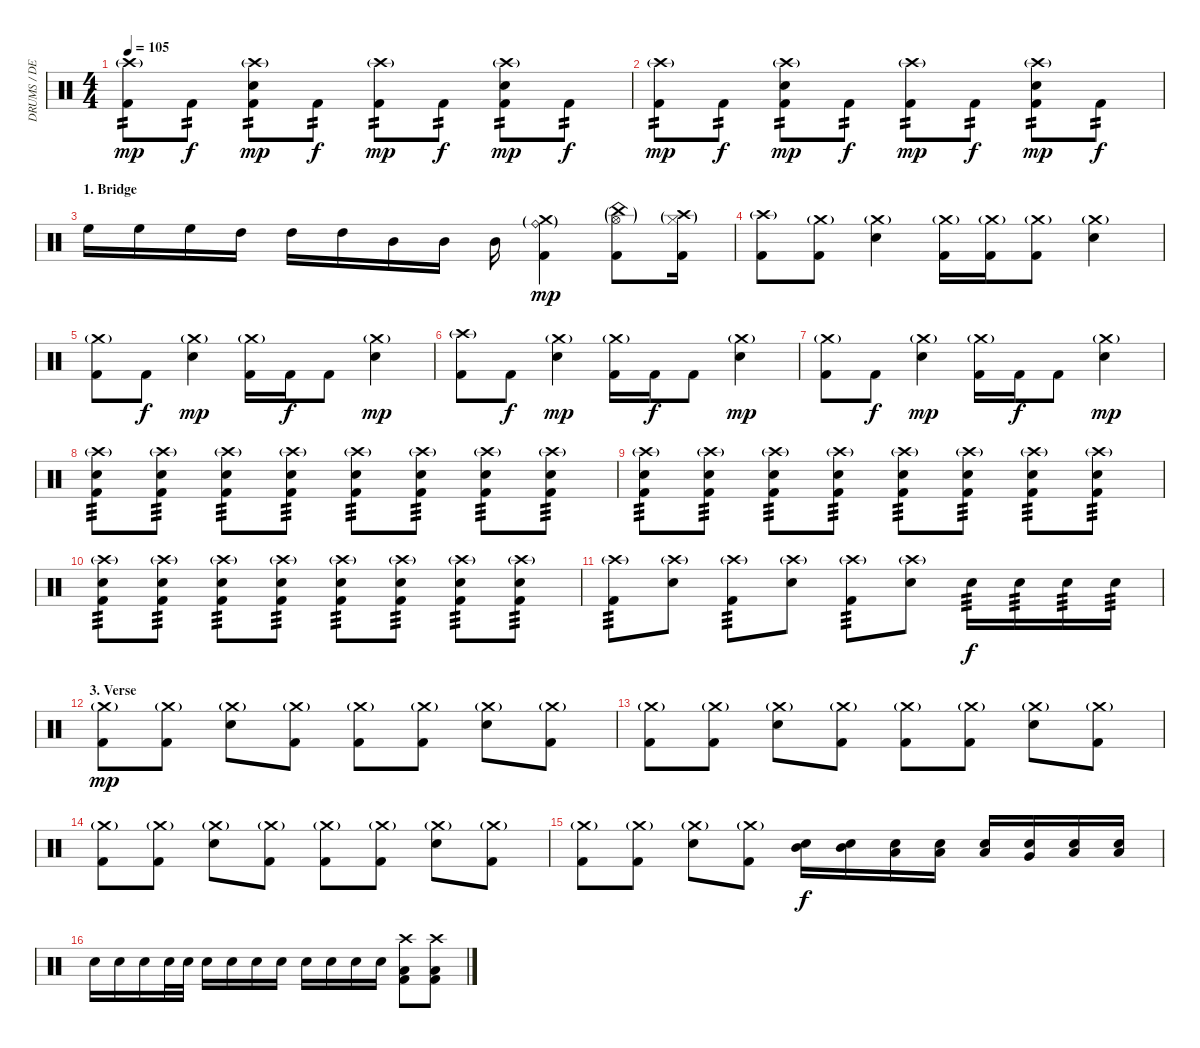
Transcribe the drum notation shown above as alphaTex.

\track ("DRUMS / DENNn!S" "DRUMS / DE") {instrument percussion}
\staff {score}
\articulation defaults
\ts (4 4)
\tempo 105
\clef neutral
\ks c
("Crash high (hit)"{g} "Kick (hit) 2").8{tp 2 dy mp} "Kick (hit) 2".8{tp 2 dy f} ("Crash high (hit)"{g} "Kick (hit) 2" "Electric Snare (hit)").8{tp 2 dy mp} "Kick (hit) 2".8{tp 2 dy f} ("Crash high (hit)"{g} "Kick (hit) 2").8{tp 2 dy mp} "Kick (hit) 2".8{tp 2 dy f} ("Crash high (hit)"{g} "Kick (hit) 2" "Electric Snare (hit)").8{tp 2 dy mp} "Kick (hit) 2".8{tp 2 dy f} |
("Crash high (hit)"{g} "Kick (hit) 2").8{tp 2 dy mp} "Kick (hit) 2".8{tp 2 dy f} ("Crash high (hit)"{g} "Kick (hit) 2" "Electric Snare (hit)").8{tp 2 dy mp} "Kick (hit) 2".8{tp 2 dy f} ("Crash high (hit)"{g} "Kick (hit) 2").8{tp 2 dy mp} "Kick (hit) 2".8{tp 2 dy f} ("Crash high (hit)"{g} "Kick (hit) 2" "Electric Snare (hit)").8{tp 2 dy mp} "Kick (hit) 2".8{tp 2 dy f} |
\section ("" "1. Bridge")
"High Floor Tom (hit)".16 "High Floor Tom (hit)".16 "High Floor Tom (hit)".16 "High Tom (hit)".16 "High Tom (hit)".16 "High Tom (hit)".16 "Mid Tom (hit)".16 "Mid Tom (hit)".16 "Mid Tom (hit)".16 ("Ride (bell)"{g} "Crash medium (hit)"{g} "Kick (hit) 2").4{dy mp} ("China (hit)"{g} "Hi-Hat (open)"{g} "Kick (hit) 2").8 ("Hi-Hat (closed)"{g} "Crash high (hit)"{g} "Kick (hit) 2").16 |
("Crash high (hit)"{g} "Kick (hit) 2").8 ("Crash medium (hit)"{g} "Kick (hit) 2").8 ("Crash medium (hit)"{g} "Electric Snare (hit)").4 ("Crash medium (hit)"{g} "Kick (hit) 2").16 ("Crash medium (hit)"{g} "Kick (hit) 2").16 ("Crash medium (hit)"{g} "Kick (hit) 2").8 ("Crash medium (hit)"{g} "Electric Snare (hit)").4 |
("Crash medium (hit)"{g} "Kick (hit) 2").8 "Kick (hit) 2".8{dy f} ("Crash medium (hit)"{g} "Electric Snare (hit)").4{dy mp} ("Crash medium (hit)"{g} "Kick (hit) 2").16 "Kick (hit) 2".16{dy f} "Kick (hit) 2".8 ("Crash medium (hit)"{g} "Electric Snare (hit)").4{dy mp} |
("Crash high (hit)"{g} "Kick (hit) 2").8 "Kick (hit) 2".8{dy f} ("Crash medium (hit)"{g} "Electric Snare (hit)").4{dy mp} ("Crash medium (hit)"{g} "Kick (hit) 2").16 "Kick (hit) 2".16{dy f} "Kick (hit) 2".8 ("Crash medium (hit)"{g} "Electric Snare (hit)").4{dy mp} |
("Crash medium (hit)"{g} "Kick (hit) 2").8 "Kick (hit) 2".8{dy f} ("Crash medium (hit)"{g} "Electric Snare (hit)").4{dy mp} ("Crash medium (hit)"{g} "Kick (hit) 2").16 "Kick (hit) 2".16{dy f} "Kick (hit) 2".8 ("Crash medium (hit)"{g} "Electric Snare (hit)").4{dy mp} |
("Crash high (hit)"{g} "Electric Snare (hit)" "Kick (hit) 2").8{tp 3} ("Crash high (hit)"{g} "Kick (hit) 2" "Electric Snare (hit)").8{tp 3} ("Crash high (hit)"{g} "Electric Snare (hit)" "Kick (hit) 2").8{tp 3} ("Crash high (hit)"{g} "Kick (hit) 2" "Electric Snare (hit)").8{tp 3} ("Crash high (hit)"{g} "Electric Snare (hit)" "Kick (hit) 2").8{tp 3} ("Crash high (hit)"{g} "Kick (hit) 2" "Electric Snare (hit)").8{tp 3} ("Crash high (hit)"{g} "Electric Snare (hit)" "Kick (hit) 2").8{tp 3} ("Crash high (hit)"{g} "Kick (hit) 2" "Electric Snare (hit)").8{tp 3} |
("Crash high (hit)"{g} "Electric Snare (hit)" "Kick (hit) 2").8{tp 3} ("Crash high (hit)"{g} "Kick (hit) 2" "Electric Snare (hit)").8{tp 3} ("Crash high (hit)"{g} "Electric Snare (hit)" "Kick (hit) 2").8{tp 3} ("Crash high (hit)"{g} "Kick (hit) 2" "Electric Snare (hit)").8{tp 3} ("Crash high (hit)"{g} "Electric Snare (hit)" "Kick (hit) 2").8{tp 3} ("Crash high (hit)"{g} "Kick (hit) 2" "Electric Snare (hit)").8{tp 3} ("Crash high (hit)"{g} "Electric Snare (hit)" "Kick (hit) 2").8{tp 3} ("Crash high (hit)"{g} "Kick (hit) 2" "Electric Snare (hit)").8{tp 3} |
("Crash high (hit)"{g} "Electric Snare (hit)" "Kick (hit) 2").8{tp 3} ("Crash high (hit)"{g} "Kick (hit) 2" "Electric Snare (hit)").8{tp 3} ("Crash high (hit)"{g} "Electric Snare (hit)" "Kick (hit) 2").8{tp 3} ("Crash high (hit)"{g} "Kick (hit) 2" "Electric Snare (hit)").8{tp 3} ("Crash high (hit)"{g} "Electric Snare (hit)" "Kick (hit) 2").8{tp 3} ("Crash high (hit)"{g} "Kick (hit) 2" "Electric Snare (hit)").8{tp 3} ("Crash high (hit)"{g} "Electric Snare (hit)" "Kick (hit) 2").8{tp 3} ("Crash high (hit)"{g} "Kick (hit) 2" "Electric Snare (hit)").8{tp 3} |
("Crash high (hit)"{g} "Kick (hit) 2").8{tp 3} ("Crash high (hit)"{g} "Electric Snare (hit)").8 ("Crash high (hit)"{g} "Kick (hit) 2").8{tp 3} ("Crash high (hit)"{g} "Electric Snare (hit)").8 ("Crash high (hit)"{g} "Kick (hit) 2").8{tp 3} ("Crash high (hit)"{g} "Electric Snare (hit)").8 "Electric Snare (hit)".16{tp 3 dy f} "Electric Snare (hit)".16{tp 3} "Electric Snare (hit)".16{tp 3} "Electric Snare (hit)".16{tp 3} |
\section ("" "3. Verse")
("Crash medium (hit)"{g} "Kick (hit) 2").8{dy mp} ("Crash medium (hit)"{g} "Kick (hit) 2").8 ("Crash medium (hit)"{g} "Electric Snare (hit)").8 ("Crash medium (hit)"{g} "Kick (hit) 2").8 ("Crash medium (hit)"{g} "Kick (hit) 2").8 ("Crash medium (hit)"{g} "Kick (hit) 2").8 ("Crash medium (hit)"{g} "Electric Snare (hit)").8 ("Crash medium (hit)"{g} "Kick (hit) 2").8 |
("Crash medium (hit)"{g} "Kick (hit) 2").8 ("Crash medium (hit)"{g} "Kick (hit) 2").8 ("Crash medium (hit)"{g} "Electric Snare (hit)").8 ("Crash medium (hit)"{g} "Kick (hit) 2").8 ("Crash medium (hit)"{g} "Kick (hit) 2").8 ("Crash medium (hit)"{g} "Kick (hit) 2").8 ("Crash medium (hit)"{g} "Electric Snare (hit)").8 ("Crash medium (hit)"{g} "Kick (hit) 2").8 |
("Crash medium (hit)"{g} "Kick (hit) 2").8 ("Crash medium (hit)"{g} "Kick (hit) 2").8 ("Crash medium (hit)"{g} "Electric Snare (hit)").8 ("Crash medium (hit)"{g} "Kick (hit) 2").8 ("Crash medium (hit)"{g} "Kick (hit) 2").8 ("Crash medium (hit)"{g} "Kick (hit) 2").8 ("Crash medium (hit)"{g} "Electric Snare (hit)").8 ("Crash medium (hit)"{g} "Kick (hit) 2").8 |
("Crash medium (hit)"{g} "Kick (hit) 2").8 ("Crash medium (hit)"{g} "Kick (hit) 2").8 ("Crash medium (hit)"{g} "Electric Snare (hit)").8 ("Crash medium (hit)"{g} "Kick (hit) 2").8 ("Electric Snare (hit)" "Mid Tom (hit)").16{dy f} ("Electric Snare (hit)" "Mid Tom (hit)").16 ("Electric Snare (hit)" "Low Tom (hit)").16 ("Electric Snare (hit)" "Low Tom (hit)").16 ("Electric Snare (hit)" "Low Tom (hit)").16 ("Electric Snare (hit)" "Very Low Tom (hit)").16 ("Electric Snare (hit)" "Low Floor Tom (hit)").16 ("Electric Snare (hit)" "Low Floor Tom (hit)").16 |
"Electric Snare (hit)".16 "Electric Snare (hit)".16 "Electric Snare (hit)".16 "Electric Snare (hit)".32 "Electric Snare (hit)".32 "Electric Snare (hit)".16 "Electric Snare (hit)".16 "Electric Snare (hit)".16 "Electric Snare (hit)".16 "Electric Snare (hit)".16 "Electric Snare (hit)".16 "Electric Snare (hit)".16 "Electric Snare (hit)".16 ("Crash high (hit)" "Low Floor Tom (hit)" "Kick (hit) 2").8 ("Crash high (hit)" "Low Floor Tom (hit)" "Kick (hit) 2").8
